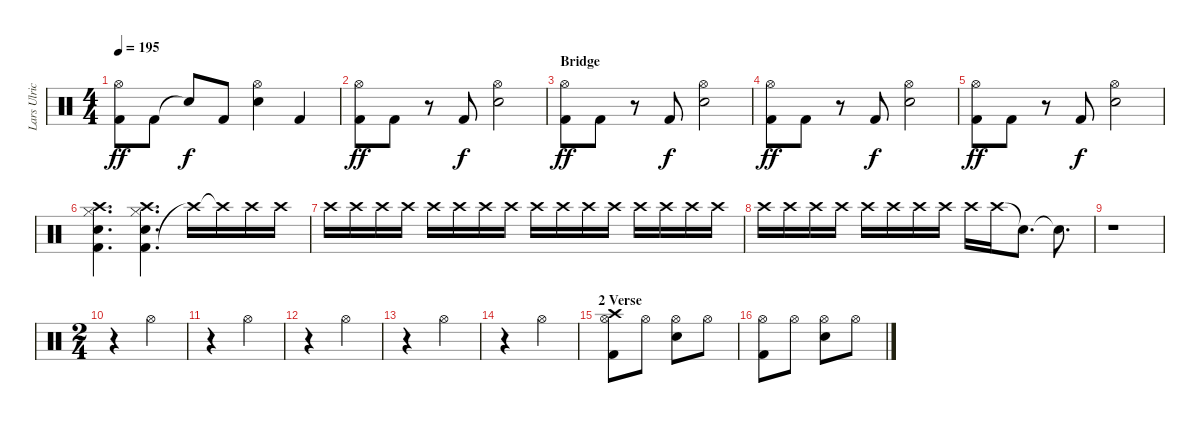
\track ("Lars Ulrich" "Lars Ulric") {instrument percussion}
\staff {score}
\articulation defaults
\ts (4 4)
\tempo 195
\clef neutral
\ks c
("Kick (hit) 2" "Hi-Hat (open)").8{dy ff} "Kick (hit) 2".8 "Snare (hit)"{t}.8{dy f} "Kick (hit) 2".8 ("Snare (hit) 2" "Hi-Hat (open)").4 "Kick (hit) 2".4 |
("Kick (hit) 2" "Hi-Hat (open)").8{dy ff} "Kick (hit) 2".8 r.8 "Kick (hit) 2".8{dy f} ("Snare (hit) 2" "Hi-Hat (open)").2 |
\section ("" "Bridge")
("Kick (hit) 2" "Hi-Hat (open)").8{dy ff} "Kick (hit) 2".8 r.8 "Kick (hit) 2".8{dy f} ("Snare (hit) 2" "Hi-Hat (open)").2 |
("Kick (hit) 2" "Hi-Hat (open)").8{dy ff} "Kick (hit) 2".8 r.8 "Kick (hit) 2".8{dy f} ("Snare (hit) 2" "Hi-Hat (open)").2 |
("Kick (hit) 2" "Hi-Hat (open)").8{dy ff} "Kick (hit) 2".8 r.8 "Kick (hit) 2".8{dy f} ("Snare (hit) 2" "Hi-Hat (open)").2 |
("Kick (hit) 2" "Snare (hit) 2" "Hi-Hat (closed)" "Crash high (hit)").4{d} ("Kick (hit) 2" "Snare (hit) 2" "Hi-Hat (closed)" "Crash high (hit)").4{d} "Crash high (hit)"{t}.16 "Crash high (hit)"{t}.16 "Crash high (hit)".16 "Crash high (hit)".16 |
"Crash high (hit)".16 "Crash high (hit)".16 "Crash high (hit)".16 "Crash high (hit)".16 "Crash high (hit)".16 "Crash high (hit)".16 "Crash high (hit)".16 "Crash high (hit)".16 "Crash high (hit)".16 "Crash high (hit)".16 "Crash high (hit)".16 "Crash high (hit)".16 "Crash high (hit)".16 "Crash high (hit)".16 "Crash high (hit)".16 "Crash high (hit)".16 |
"Crash high (hit)".16 "Crash high (hit)".16 "Crash high (hit)".16 "Crash high (hit)".16 "Crash high (hit)".16 "Crash high (hit)".16 "Crash high (hit)".16 "Crash high (hit)".16 "Crash high (hit)".16 "Crash high (hit)".16 "Snare (hit)"{t}.8{d} "Snare (hit)"{t}.8{d} |
r.1 |
\ts (2 4)
r.4 "Hi-Hat (open)".4 |
r.4 "Hi-Hat (open)".4 |
r.4 "Hi-Hat (open)".4 |
r.4 "Hi-Hat (open)".4 |
r.4 "Hi-Hat (open)".4 |
\section ("" "2 Verse")
("Kick (hit) 2" "Hi-Hat (open)" "Crash high (hit)").8 "Hi-Hat (open)".8 ("Snare (hit) 2" "Hi-Hat (open)").8 "Hi-Hat (open)".8 |
("Kick (hit) 2" "Hi-Hat (open)").8 "Hi-Hat (open)".8 ("Snare (hit) 2" "Hi-Hat (open)").8 "Hi-Hat (open)".8
